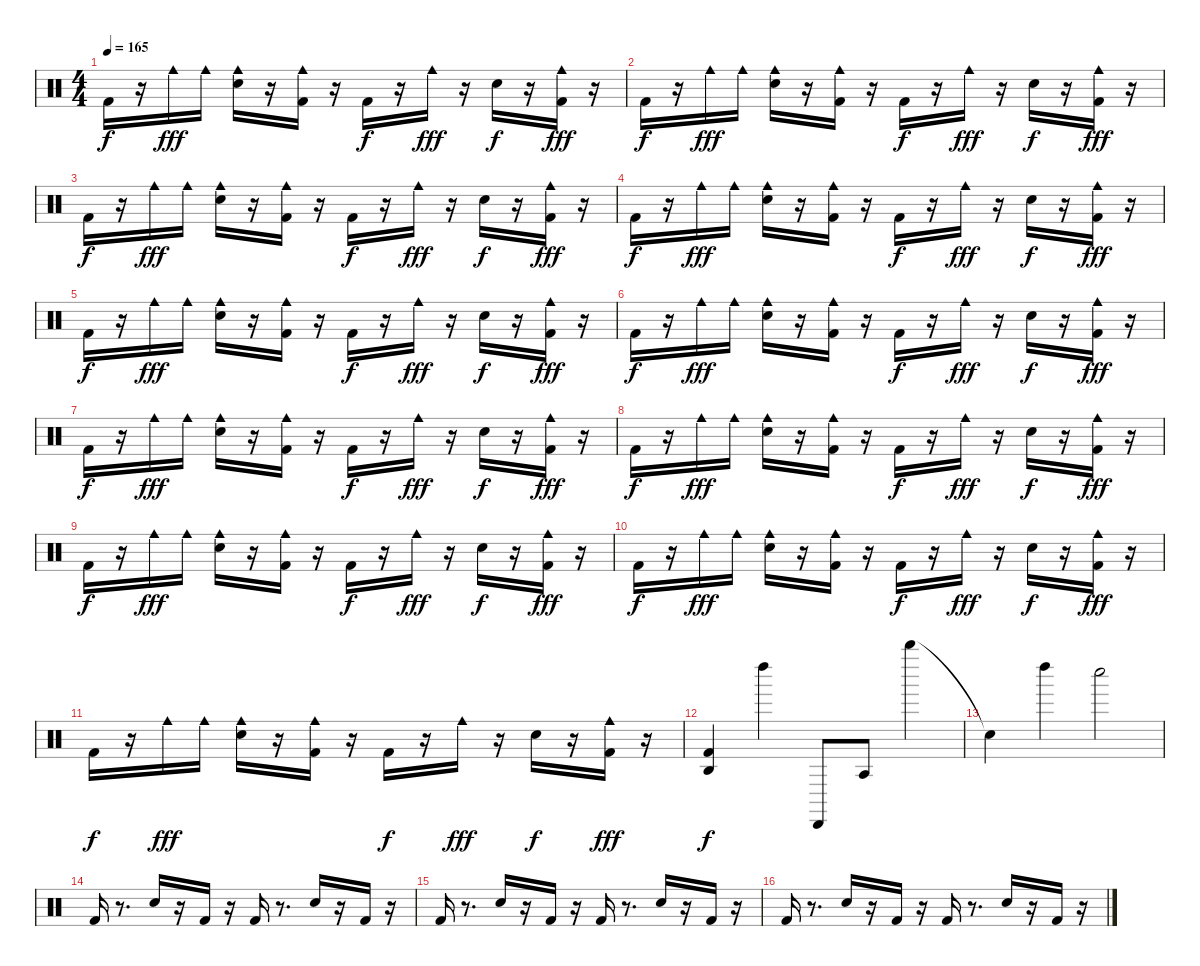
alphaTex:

\track "" {instrument percussion}
\staff {score}
\articulation defaults
\ts (4 4)
\tempo 165
\clef neutral
\ks c "Kick (hit) 2".16{dy f}
r.16 "Cowbell medium (hit)".16{dy fff} "Cowbell medium (hit)".16 ("Snare (hit) 2" "Cowbell medium (hit)").16 r.16 ("Kick (hit) 2" "Cowbell medium (hit)").16 r.16 "Kick (hit) 2".16{dy f} r.16 "Cowbell medium (hit)".16{dy fff} r.16 "Snare (hit) 2".16{dy f} r.16 ("Kick (hit) 2" "Cowbell medium (hit)").16{dy fff} r.16 |
"Kick (hit) 2".16{dy f} r.16 "Cowbell medium (hit)".16{dy fff} "Cowbell medium (hit)".16 ("Snare (hit) 2" "Cowbell medium (hit)").16 r.16 ("Kick (hit) 2" "Cowbell medium (hit)").16 r.16 "Kick (hit) 2".16{dy f} r.16 "Cowbell medium (hit)".16{dy fff} r.16 "Snare (hit) 2".16{dy f} r.16 ("Kick (hit) 2" "Cowbell medium (hit)").16{dy fff} r.16 |
"Kick (hit) 2".16{dy f} r.16 "Cowbell medium (hit)".16{dy fff} "Cowbell medium (hit)".16 ("Snare (hit) 2" "Cowbell medium (hit)").16 r.16 ("Kick (hit) 2" "Cowbell medium (hit)").16 r.16 "Kick (hit) 2".16{dy f} r.16 "Cowbell medium (hit)".16{dy fff} r.16 "Snare (hit) 2".16{dy f} r.16 ("Kick (hit) 2" "Cowbell medium (hit)").16{dy fff} r.16 |
"Kick (hit) 2".16{dy f} r.16 "Cowbell medium (hit)".16{dy fff} "Cowbell medium (hit)".16 ("Snare (hit) 2" "Cowbell medium (hit)").16 r.16 ("Kick (hit) 2" "Cowbell medium (hit)").16 r.16 "Kick (hit) 2".16{dy f} r.16 "Cowbell medium (hit)".16{dy fff} r.16 "Snare (hit) 2".16{dy f} r.16 ("Kick (hit) 2" "Cowbell medium (hit)").16{dy fff} r.16 |
"Kick (hit) 2".16{dy f} r.16 "Cowbell medium (hit)".16{dy fff} "Cowbell medium (hit)".16 ("Snare (hit) 2" "Cowbell medium (hit)").16 r.16 ("Kick (hit) 2" "Cowbell medium (hit)").16 r.16 "Kick (hit) 2".16{dy f} r.16 "Cowbell medium (hit)".16{dy fff} r.16 "Snare (hit) 2".16{dy f} r.16 ("Kick (hit) 2" "Cowbell medium (hit)").16{dy fff} r.16 |
"Kick (hit) 2".16{dy f} r.16 "Cowbell medium (hit)".16{dy fff} "Cowbell medium (hit)".16 ("Snare (hit) 2" "Cowbell medium (hit)").16 r.16 ("Kick (hit) 2" "Cowbell medium (hit)").16 r.16 "Kick (hit) 2".16{dy f} r.16 "Cowbell medium (hit)".16{dy fff} r.16 "Snare (hit) 2".16{dy f} r.16 ("Kick (hit) 2" "Cowbell medium (hit)").16{dy fff} r.16 |
"Kick (hit) 2".16{dy f} r.16 "Cowbell medium (hit)".16{dy fff} "Cowbell medium (hit)".16 ("Snare (hit) 2" "Cowbell medium (hit)").16 r.16 ("Kick (hit) 2" "Cowbell medium (hit)").16 r.16 "Kick (hit) 2".16{dy f} r.16 "Cowbell medium (hit)".16{dy fff} r.16 "Snare (hit) 2".16{dy f} r.16 ("Kick (hit) 2" "Cowbell medium (hit)").16{dy fff} r.16 |
"Kick (hit) 2".16{dy f} r.16 "Cowbell medium (hit)".16{dy fff} "Cowbell medium (hit)".16 ("Snare (hit) 2" "Cowbell medium (hit)").16 r.16 ("Kick (hit) 2" "Cowbell medium (hit)").16 r.16 "Kick (hit) 2".16{dy f} r.16 "Cowbell medium (hit)".16{dy fff} r.16 "Snare (hit) 2".16{dy f} r.16 ("Kick (hit) 2" "Cowbell medium (hit)").16{dy fff} r.16 |
"Kick (hit) 2".16{dy f} r.16 "Cowbell medium (hit)".16{dy fff} "Cowbell medium (hit)".16 ("Snare (hit) 2" "Cowbell medium (hit)").16 r.16 ("Kick (hit) 2" "Cowbell medium (hit)").16 r.16 "Kick (hit) 2".16{dy f} r.16 "Cowbell medium (hit)".16{dy fff} r.16 "Snare (hit) 2".16{dy f} r.16 ("Kick (hit) 2" "Cowbell medium (hit)").16{dy fff} r.16 |
"Kick (hit) 2".16{dy f} r.16 "Cowbell medium (hit)".16{dy fff} "Cowbell medium (hit)".16 ("Snare (hit) 2" "Cowbell medium (hit)").16 r.16 ("Kick (hit) 2" "Cowbell medium (hit)").16 r.16 "Kick (hit) 2".16{dy f} r.16 "Cowbell medium (hit)".16{dy fff} r.16 "Snare (hit) 2".16{dy f} r.16 ("Kick (hit) 2" "Cowbell medium (hit)").16{dy fff} r.16 |
"Kick (hit) 2".16{dy f} r.16 "Cowbell medium (hit)".16{dy fff} "Cowbell medium (hit)".16 ("Snare (hit) 2" "Cowbell medium (hit)").16 r.16 ("Kick (hit) 2" "Cowbell medium (hit)").16 r.16 "Kick (hit) 2".16{dy f} r.16 "Cowbell medium (hit)".16{dy fff} r.16 "Snare (hit) 2".16{dy f} r.16 ("Kick (hit) 2" "Cowbell medium (hit)").16{dy fff} r.16 |
("Kick (hit) 2" "Agogo high (hit)").4{dy f} "Left Maraca (hit)".4 "Cabasa (hit)".8 "Agogo tow (hit)".8 "Whistle high (hit)".4 |
"Snare (hit)"{t}.4 "Left Maraca (hit)".4 "Whistle low (hit)".2 |
"Kick (hit) 2".16 r.8{d} "Snare (hit) 2".16 r.16 "Kick (hit) 2".16 r.16 "Kick (hit) 2".16 r.8{d} "Snare (hit) 2".16 r.16 "Kick (hit) 2".16 r.16 |
"Kick (hit) 2".16 r.8{d} "Snare (hit) 2".16 r.16 "Kick (hit) 2".16 r.16 "Kick (hit) 2".16 r.8{d} "Snare (hit) 2".16 r.16 "Kick (hit) 2".16 r.16 |
"Kick (hit) 2".16 r.8{d} "Snare (hit) 2".16 r.16 "Kick (hit) 2".16 r.16 "Kick (hit) 2".16 r.8{d} "Snare (hit) 2".16 r.16 "Kick (hit) 2".16 r.16
